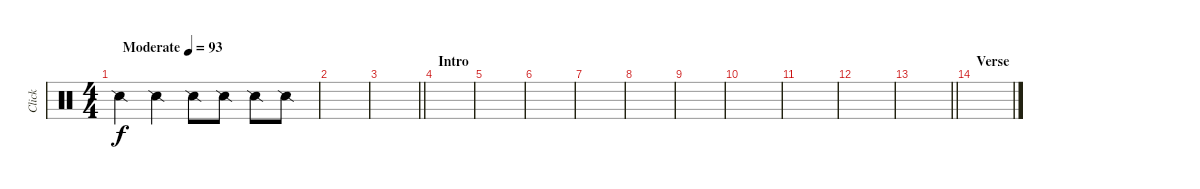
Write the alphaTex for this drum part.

\track ("Click" "Click") {instrument percussion}
\staff {score}
\articulation defaults
\ts (4 4)
\tempo (93 "Moderate")
\clef neutral
\ks c "Snare (side stick) 2".4{dy f} "Snare (side stick) 2".4 "Snare (side stick) 2".8 "Snare (side stick) 2".8 "Snare (side stick) 2".8 "Snare (side stick) 2".8
|
|
\barLineRight lightlight
|
\section ("" "Intro")
|
|
|
|
|
|
|
|
|
\barLineRight lightlight
|
\section ("" "Verse")
